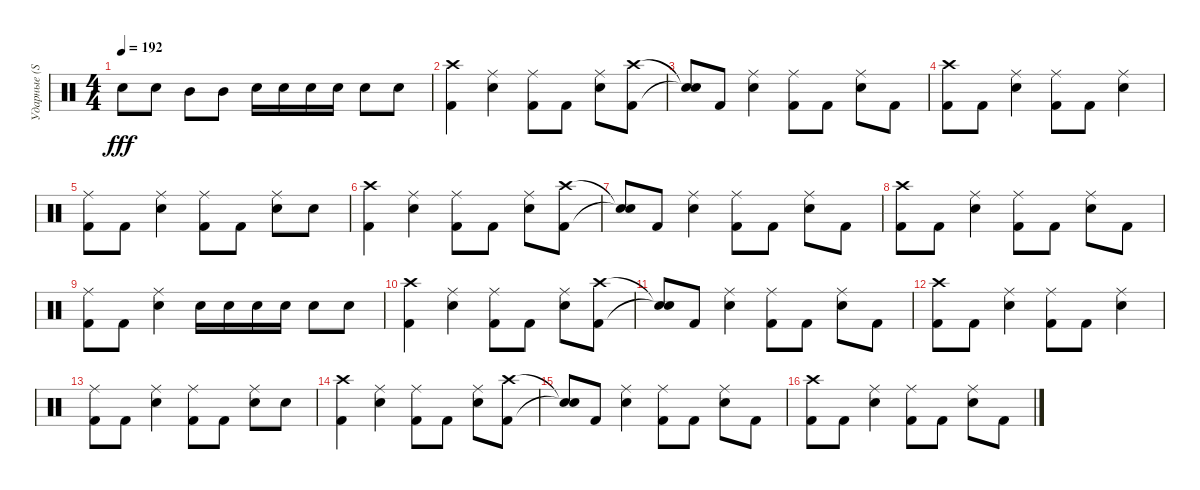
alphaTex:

\track ("Ударные (Steve Jocz)" "Ударные (S") {instrument percussion}
\staff {score}
\articulation defaults
\ts (4 4)
\tempo 192
\clef neutral
\ks c "Electric Snare (hit)".8{dy fff} "Electric Snare (hit)".8 "Mid Tom (hit)".8 "Mid Tom (hit)".8 "Electric Snare (hit)".16 "Electric Snare (hit)".16 "Electric Snare (hit)".16 "Electric Snare (hit)".16 "Electric Snare (hit)".8 "Electric Snare (hit)".8
|
("Crash high (hit)" "Kick (hit) 2").4 ("Ride (middle)" "Electric Snare (hit)").4 ("Ride (middle)" "Kick (hit) 2").8 "Kick (hit) 2".8 ("Ride (middle)" "Electric Snare (hit)").8 ("Crash high (hit)" "Kick (hit) 2").8 |
("Snare (hit)"{t} "Snare (hit)"{t}).8 "Kick (hit) 2".8 ("Ride (middle)" "Electric Snare (hit)").4 ("Ride (middle)" "Kick (hit) 2").8 "Kick (hit) 2".8 ("Ride (middle)" "Electric Snare (hit)").8 "Kick (hit) 2".8 |
("Crash high (hit)" "Kick (hit) 2").8 "Kick (hit) 2".8 ("Ride (middle)" "Electric Snare (hit)").4 ("Ride (middle)" "Kick (hit) 2").8 "Kick (hit) 2".8 ("Ride (middle)" "Electric Snare (hit)").4 |
("Ride (middle)" "Kick (hit) 2").8 "Kick (hit) 2".8 ("Ride (middle)" "Electric Snare (hit)").4 ("Ride (middle)" "Kick (hit) 2").8 "Kick (hit) 2".8 ("Ride (middle)" "Electric Snare (hit)").8 "Electric Snare (hit)".8 |
("Crash high (hit)" "Kick (hit) 2").4 ("Ride (middle)" "Electric Snare (hit)").4 ("Ride (middle)" "Kick (hit) 2").8 "Kick (hit) 2".8 ("Ride (middle)" "Electric Snare (hit)").8 ("Crash high (hit)" "Kick (hit) 2").8 |
("Snare (hit)"{t} "Snare (hit)"{t}).8 "Kick (hit) 2".8 ("Ride (middle)" "Electric Snare (hit)").4 ("Ride (middle)" "Kick (hit) 2").8 "Kick (hit) 2".8 ("Ride (middle)" "Electric Snare (hit)").8 "Kick (hit) 2".8 |
("Crash high (hit)" "Kick (hit) 2").8 "Kick (hit) 2".8 ("Ride (middle)" "Electric Snare (hit)").4 ("Ride (middle)" "Kick (hit) 2").8 "Kick (hit) 2".8 ("Ride (middle)" "Electric Snare (hit)").8 "Kick (hit) 2".8 |
("Ride (middle)" "Kick (hit) 2").8 "Kick (hit) 2".8 ("Ride (middle)" "Electric Snare (hit)").4 "Electric Snare (hit)".16 "Electric Snare (hit)".16 "Electric Snare (hit)".16 "Electric Snare (hit)".16 "Electric Snare (hit)".8 "Electric Snare (hit)".8 |
("Crash high (hit)" "Kick (hit) 2").4 ("Ride (middle)" "Electric Snare (hit)").4 ("Ride (middle)" "Kick (hit) 2").8 "Kick (hit) 2".8 ("Ride (middle)" "Electric Snare (hit)").8 ("Crash high (hit)" "Kick (hit) 2").8 |
("Snare (hit)"{t} "Snare (hit)"{t}).8 "Kick (hit) 2".8 ("Ride (middle)" "Electric Snare (hit)").4 ("Ride (middle)" "Kick (hit) 2").8 "Kick (hit) 2".8 ("Ride (middle)" "Electric Snare (hit)").8 "Kick (hit) 2".8 |
("Crash high (hit)" "Kick (hit) 2").8 "Kick (hit) 2".8 ("Ride (middle)" "Electric Snare (hit)").4 ("Ride (middle)" "Kick (hit) 2").8 "Kick (hit) 2".8 ("Ride (middle)" "Electric Snare (hit)").4 |
("Ride (middle)" "Kick (hit) 2").8 "Kick (hit) 2".8 ("Ride (middle)" "Electric Snare (hit)").4 ("Ride (middle)" "Kick (hit) 2").8 "Kick (hit) 2".8 ("Ride (middle)" "Electric Snare (hit)").8 "Electric Snare (hit)".8 |
("Crash high (hit)" "Kick (hit) 2").4 ("Ride (middle)" "Electric Snare (hit)").4 ("Ride (middle)" "Kick (hit) 2").8 "Kick (hit) 2".8 ("Ride (middle)" "Electric Snare (hit)").8 ("Crash high (hit)" "Kick (hit) 2").8 |
("Snare (hit)"{t} "Snare (hit)"{t}).8 "Kick (hit) 2".8 ("Ride (middle)" "Electric Snare (hit)").4 ("Ride (middle)" "Kick (hit) 2").8 "Kick (hit) 2".8 ("Ride (middle)" "Electric Snare (hit)").8 "Kick (hit) 2".8 |
("Crash high (hit)" "Kick (hit) 2").8 "Kick (hit) 2".8 ("Ride (middle)" "Electric Snare (hit)").4 ("Ride (middle)" "Kick (hit) 2").8 "Kick (hit) 2".8 ("Ride (middle)" "Electric Snare (hit)").8 "Kick (hit) 2".8
